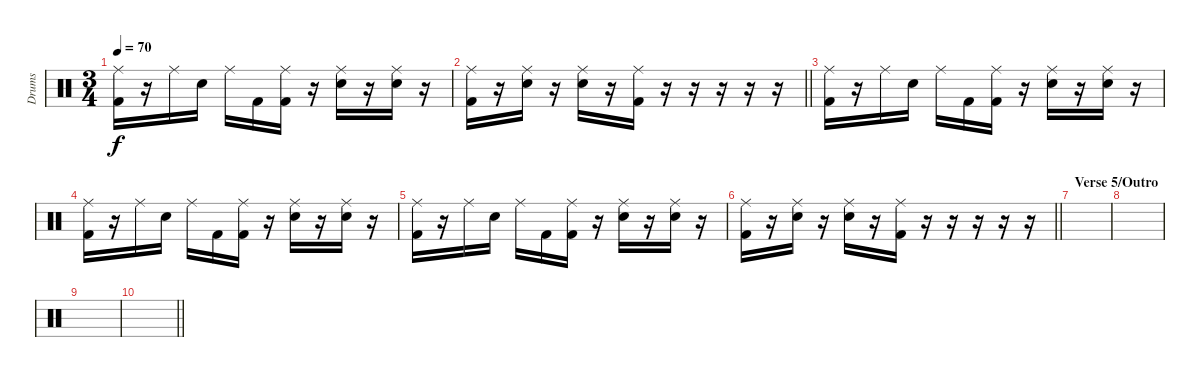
\track ("Drums" "Drums") {instrument percussion}
\staff {score}
\articulation defaults
\ts (3 4)
\tempo 70
\clef neutral
\ks c
("Ride (middle)" "Kick (hit) 2").16{dy f} r.16 "Ride (middle)".16 "Electric Snare (hit)".16 "Ride (middle)".16 "Kick (hit) 2".16 ("Ride (middle)" "Kick (hit) 2").16 r.16 ("Ride (middle)" "Electric Snare (hit)").16 r.16 ("Ride (middle)" "Electric Snare (hit)").16 r.16 |
\barLineRight lightlight
("Ride (middle)" "Kick (hit) 2").16 r.16 ("Ride (middle)" "Electric Snare (hit)").16 r.16 ("Ride (middle)" "Electric Snare (hit)").16 r.16 ("Ride (middle)" "Kick (hit) 2").16 r.16 r.16 r.16 r.16 r.16 |
("Ride (middle)" "Kick (hit) 2").16 r.16 "Ride (middle)".16 "Electric Snare (hit)".16 "Ride (middle)".16 "Kick (hit) 2".16 ("Ride (middle)" "Kick (hit) 2").16 r.16 ("Ride (middle)" "Electric Snare (hit)").16 r.16 ("Ride (middle)" "Electric Snare (hit)").16 r.16 |
("Ride (middle)" "Kick (hit) 2").16 r.16 "Ride (middle)".16 "Electric Snare (hit)".16 "Ride (middle)".16 "Kick (hit) 2".16 ("Ride (middle)" "Kick (hit) 2").16 r.16 ("Ride (middle)" "Electric Snare (hit)").16 r.16 ("Ride (middle)" "Electric Snare (hit)").16 r.16 |
("Ride (middle)" "Kick (hit) 2").16 r.16 "Ride (middle)".16 "Electric Snare (hit)".16 "Ride (middle)".16 "Kick (hit) 2".16 ("Ride (middle)" "Kick (hit) 2").16 r.16 ("Ride (middle)" "Electric Snare (hit)").16 r.16 ("Ride (middle)" "Electric Snare (hit)").16 r.16 |
\barLineRight lightlight
("Ride (middle)" "Kick (hit) 2").16 r.16 ("Ride (middle)" "Electric Snare (hit)").16 r.16 ("Ride (middle)" "Electric Snare (hit)").16 r.16 ("Ride (middle)" "Kick (hit) 2").16 r.16 r.16 r.16 r.16 r.16 |
\section ("" "Verse 5/Outro")
|
|
|
\barLineRight lightlight
